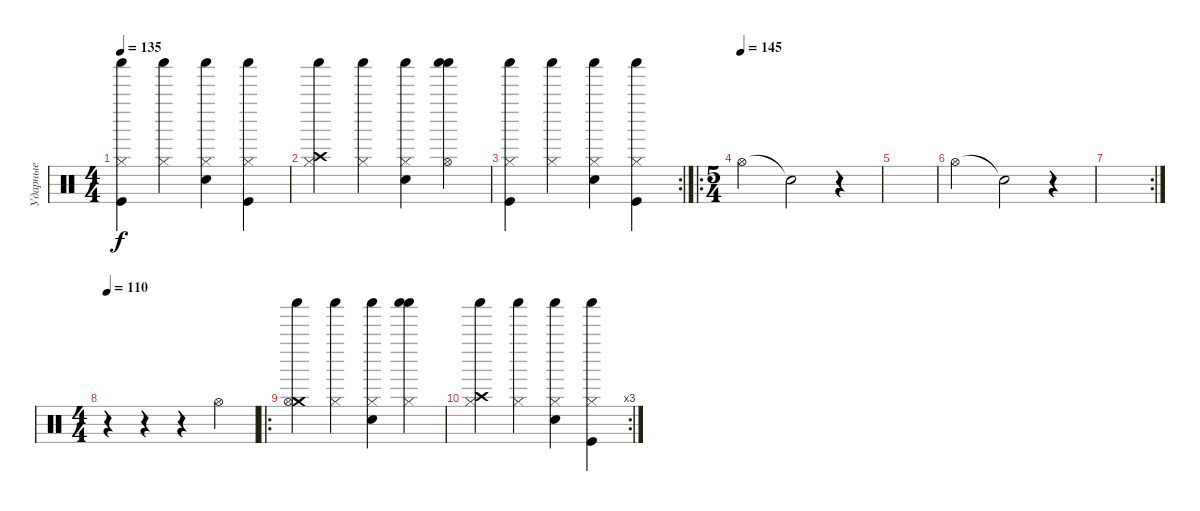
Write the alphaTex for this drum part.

\track ("Ударные" "Ударные") {instrument percussion}
\staff {score}
\articulation defaults
\ts (4 4)
\tempo 135
\clef neutral
\ks c
("Shaker (hit)" "Kick (hit)" "Hi-Hat (closed)").4{dy f} ("Shaker (hit)" "Hi-Hat (closed)").4 ("Shaker (hit)" "Snare (hit) 2" "Hi-Hat (closed)").4 ("Shaker (hit)" "Kick (hit)" "Hi-Hat (closed)").4 |
("Shaker (hit)" "Crash high (hit)" "Hi-Hat (closed)").4 ("Shaker (hit)" "Hi-Hat (closed)").4 ("Shaker (hit)" "Snare (hit) 2" "Hi-Hat (closed)").4 ("Shaker (hit)" "Shaker (hit)" "Hi-Hat (open)").4 |
\rc 2
("Shaker (hit)" "Kick (hit)" "Hi-Hat (closed)").4 ("Shaker (hit)" "Hi-Hat (closed)").4 ("Shaker (hit)" "Snare (hit) 2" "Hi-Hat (closed)").4 ("Shaker (hit)" "Kick (hit)" "Hi-Hat (closed)").4 |
\ro
\ts (5 4)
\tempo (145)
"Hi-Hat (open)".2 "Snare (hit)"{t}.2 r.4 |
|
"Hi-Hat (open)".2 "Snare (hit)"{t}.2 r.4 |
\rc 2
|
\ts (4 4)
\tempo 110
r.4 r.4 r.4 "Hi-Hat (open)".4 |
\ro
("Shaker (hit)" "Crash medium (hit)" "Hi-Hat (open)").4 ("Shaker (hit)" "Hi-Hat (closed)").4 ("Shaker (hit)" "Snare (hit) 2" "Hi-Hat (closed)").4 ("Shaker (hit)" "Shaker (hit)" "Hi-Hat (closed)").4 |
\rc 3
("Shaker (hit)" "Crash high (hit)" "Hi-Hat (closed)").4 ("Shaker (hit)" "Hi-Hat (closed)").4 ("Shaker (hit)" "Snare (hit) 2" "Hi-Hat (closed)").4 ("Shaker (hit)" "Kick (hit)" "Hi-Hat (closed)").4
